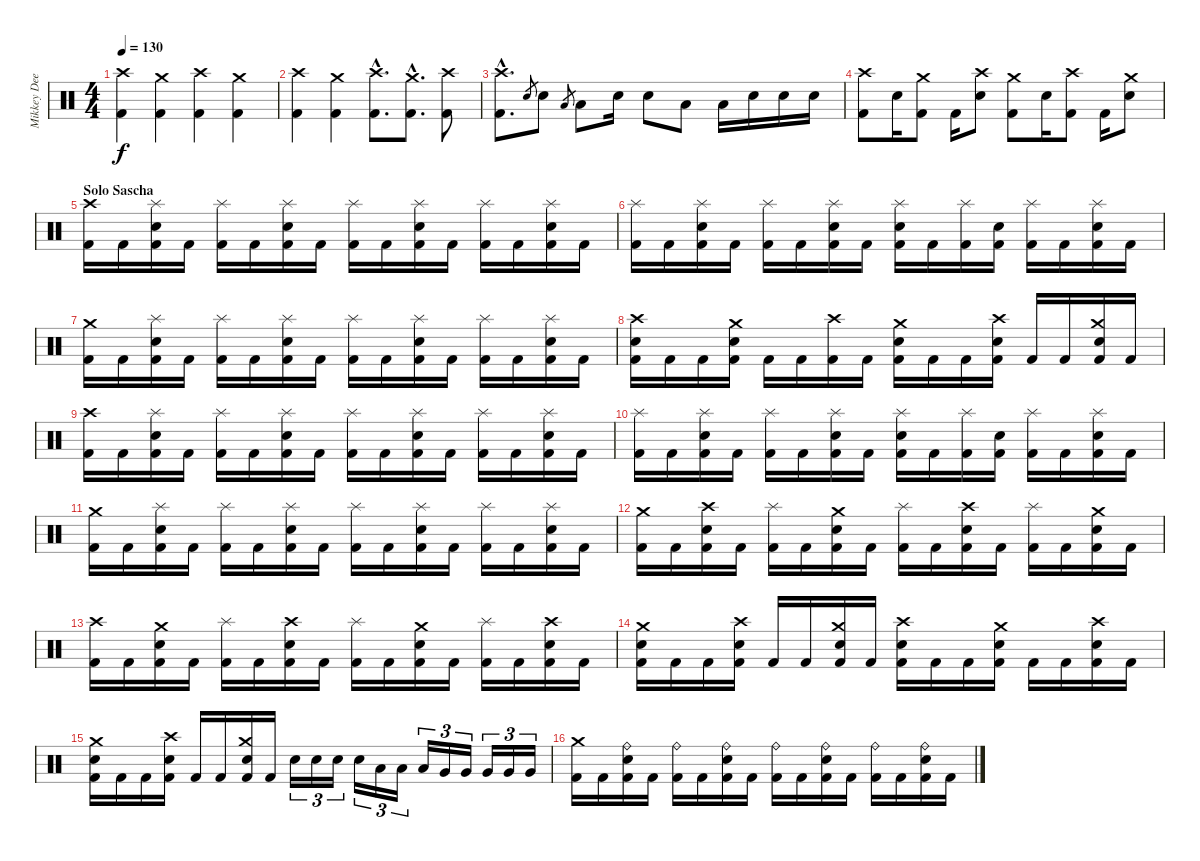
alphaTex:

\track ("Mikkey Dee" "Mikkey Dee") {instrument percussion}
\staff {score}
\articulation defaults
\ts (4 4)
\tempo 130
\clef neutral
\ks c
("Crash high (hit)" "Kick (hit) 2").4{dy f} ("Crash medium (hit)" "Kick (hit) 2").4 ("Crash high (hit)" "Kick (hit) 2").4 ("Crash medium (hit)" "Kick (hit) 2").4 |
("Crash high (hit)" "Kick (hit) 2").4 ("Crash medium (hit)" "Kick (hit) 2").4 ("Crash high (hit)"{hac} "Kick (hit) 2"{hac}).8{d} ("Crash medium (hit)"{hac} "Kick (hit) 2"{hac}).8{d} ("Crash high (hit)" "Kick (hit) 2").8 |
("Crash high (hit)"{hac} "Kick (hit) 2"{hac}).8{d} "Snare (hit) 2".8{gr} "Snare (hit) 2".8 "Low Tom (hit)".8{gr} "Low Tom (hit)".8 "Snare (hit) 2".16 "Snare (hit) 2".8 "Low Tom (hit)".8 "Low Tom (hit)".16 "Snare (hit) 2".16 "Snare (hit) 2".16 "Snare (hit) 2".16 |
("Crash high (hit)" "Kick (hit) 2").8 "Snare (hit) 2".16 ("Crash medium (hit)" "Kick (hit) 2").8 "Kick (hit) 2".16 ("Crash high (hit)" "Snare (hit) 2").8 ("Crash medium (hit)" "Kick (hit) 2").8 "Snare (hit) 2".16 ("Crash high (hit)" "Kick (hit) 2").8 "Kick (hit) 2".16 ("Crash medium (hit)" "Snare (hit) 2").8 |
\section ("" "Solo Sascha")
("Crash high (hit)" "Kick (hit) 2").16 "Kick (hit) 2".16 ("Splash (hit)" "Snare (hit) 2" "Kick (hit) 2").16 "Kick (hit) 2".16 ("Splash (hit)" "Kick (hit) 2").16 "Kick (hit) 2".16 ("Splash (hit)" "Snare (hit) 2" "Kick (hit) 2").16 "Kick (hit) 2".16 ("Splash (hit)" "Kick (hit) 2").16 "Kick (hit) 2".16 ("Splash (hit)" "Snare (hit) 2" "Kick (hit) 2").16 "Kick (hit) 2".16 ("Splash (hit)" "Kick (hit) 2").16 "Kick (hit) 2".16 ("Splash (hit)" "Snare (hit) 2" "Kick (hit) 2").16 "Kick (hit) 2".16 |
("Splash (hit)" "Kick (hit) 2").16 "Kick (hit) 2".16 ("Splash (hit)" "Snare (hit) 2" "Kick (hit) 2").16 "Kick (hit) 2".16 ("Splash (hit)" "Kick (hit) 2").16 "Kick (hit) 2".16 ("Splash (hit)" "Snare (hit) 2" "Kick (hit) 2").16 "Kick (hit) 2".16 ("Splash (hit)" "Snare (hit) 2" "Kick (hit) 2").16 "Kick (hit) 2".16 ("Splash (hit)" "Kick (hit) 2").16 ("Snare (hit) 2" "Kick (hit) 2").16 ("Splash (hit)" "Kick (hit) 2").16 "Kick (hit) 2".16 ("Splash (hit)" "Snare (hit) 2" "Kick (hit) 2").16 "Kick (hit) 2".16 |
("Crash medium (hit)" "Kick (hit) 2").16 "Kick (hit) 2".16 ("Splash (hit)" "Snare (hit) 2" "Kick (hit) 2").16 "Kick (hit) 2".16 ("Splash (hit)" "Kick (hit) 2").16 "Kick (hit) 2".16 ("Splash (hit)" "Snare (hit) 2" "Kick (hit) 2").16 "Kick (hit) 2".16 ("Splash (hit)" "Kick (hit) 2").16 "Kick (hit) 2".16 ("Splash (hit)" "Snare (hit) 2" "Kick (hit) 2").16 "Kick (hit) 2".16 ("Splash (hit)" "Kick (hit) 2").16 "Kick (hit) 2".16 ("Splash (hit)" "Snare (hit) 2" "Kick (hit) 2").16 "Kick (hit) 2".16 |
("Crash high (hit)" "Snare (hit) 2" "Kick (hit) 2").16 "Kick (hit) 2".16 "Kick (hit) 2".16 ("Crash medium (hit)" "Snare (hit) 2" "Kick (hit) 2").16 "Kick (hit) 2".16 "Kick (hit) 2".16 ("Crash high (hit)" "Kick (hit) 2").16 "Kick (hit) 2".16 ("Crash medium (hit)" "Snare (hit) 2" "Kick (hit) 2").16 "Kick (hit) 2".16 "Kick (hit) 2".16 ("Crash high (hit)" "Snare (hit) 2" "Kick (hit) 2").16 "Kick (hit) 2".16 "Kick (hit) 2".16 ("Crash medium (hit)" "Snare (hit) 2" "Kick (hit) 2").16 "Kick (hit) 2".16 |
("Crash high (hit)" "Kick (hit) 2").16 "Kick (hit) 2".16 ("Splash (hit)" "Snare (hit) 2" "Kick (hit) 2").16 "Kick (hit) 2".16 ("Splash (hit)" "Kick (hit) 2").16 "Kick (hit) 2".16 ("Splash (hit)" "Snare (hit) 2" "Kick (hit) 2").16 "Kick (hit) 2".16 ("Splash (hit)" "Kick (hit) 2").16 "Kick (hit) 2".16 ("Splash (hit)" "Snare (hit) 2" "Kick (hit) 2").16 "Kick (hit) 2".16 ("Splash (hit)" "Kick (hit) 2").16 "Kick (hit) 2".16 ("Splash (hit)" "Snare (hit) 2" "Kick (hit) 2").16 "Kick (hit) 2".16 |
("Splash (hit)" "Kick (hit) 2").16 "Kick (hit) 2".16 ("Splash (hit)" "Snare (hit) 2" "Kick (hit) 2").16 "Kick (hit) 2".16 ("Splash (hit)" "Kick (hit) 2").16 "Kick (hit) 2".16 ("Splash (hit)" "Snare (hit) 2" "Kick (hit) 2").16 "Kick (hit) 2".16 ("Splash (hit)" "Snare (hit) 2" "Kick (hit) 2").16 "Kick (hit) 2".16 ("Splash (hit)" "Kick (hit) 2").16 ("Snare (hit) 2" "Kick (hit) 2").16 ("Splash (hit)" "Kick (hit) 2").16 "Kick (hit) 2".16 ("Splash (hit)" "Snare (hit) 2" "Kick (hit) 2").16 "Kick (hit) 2".16 |
("Crash medium (hit)" "Kick (hit) 2").16 "Kick (hit) 2".16 ("Splash (hit)" "Snare (hit) 2" "Kick (hit) 2").16 "Kick (hit) 2".16 ("Splash (hit)" "Kick (hit) 2").16 "Kick (hit) 2".16 ("Splash (hit)" "Snare (hit) 2" "Kick (hit) 2").16 "Kick (hit) 2".16 ("Splash (hit)" "Kick (hit) 2").16 "Kick (hit) 2".16 ("Splash (hit)" "Snare (hit) 2" "Kick (hit) 2").16 "Kick (hit) 2".16 ("Splash (hit)" "Kick (hit) 2").16 "Kick (hit) 2".16 ("Splash (hit)" "Snare (hit) 2" "Kick (hit) 2").16 "Kick (hit) 2".16 |
("Crash medium (hit)" "Kick (hit) 2").16 "Kick (hit) 2".16 ("Crash high (hit)" "Snare (hit) 2" "Kick (hit) 2").16 "Kick (hit) 2".16 ("Splash (hit)" "Kick (hit) 2").16 "Kick (hit) 2".16 ("Crash medium (hit)" "Snare (hit) 2" "Kick (hit) 2").16 "Kick (hit) 2".16 ("Splash (hit)" "Kick (hit) 2").16 "Kick (hit) 2".16 ("Crash high (hit)" "Snare (hit) 2" "Kick (hit) 2").16 "Kick (hit) 2".16 ("Splash (hit)" "Kick (hit) 2").16 "Kick (hit) 2".16 ("Crash medium (hit)" "Snare (hit) 2" "Kick (hit) 2").16 "Kick (hit) 2".16 |
("Crash high (hit)" "Kick (hit) 2").16 "Kick (hit) 2".16 ("Crash medium (hit)" "Snare (hit) 2" "Kick (hit) 2").16 "Kick (hit) 2".16 ("Splash (hit)" "Kick (hit) 2").16 "Kick (hit) 2".16 ("Crash high (hit)" "Snare (hit) 2" "Kick (hit) 2").16 "Kick (hit) 2".16 ("Splash (hit)" "Kick (hit) 2").16 "Kick (hit) 2".16 ("Crash medium (hit)" "Snare (hit) 2" "Kick (hit) 2").16 "Kick (hit) 2".16 ("Splash (hit)" "Kick (hit) 2").16 "Kick (hit) 2".16 ("Crash high (hit)" "Snare (hit) 2" "Kick (hit) 2").16 "Kick (hit) 2".16 |
("Crash medium (hit)" "Snare (hit) 2" "Kick (hit) 2").16 "Kick (hit) 2".16 "Kick (hit) 2".16 ("Crash high (hit)" "Snare (hit) 2" "Kick (hit) 2").16 "Kick (hit) 2".16 "Kick (hit) 2".16 ("Crash medium (hit)" "Snare (hit) 2" "Kick (hit) 2").16 "Kick (hit) 2".16 ("Crash high (hit)" "Snare (hit) 2" "Kick (hit) 2").16 "Kick (hit) 2".16 "Kick (hit) 2".16 ("Crash medium (hit)" "Snare (hit) 2" "Kick (hit) 2").16 "Kick (hit) 2".16 "Kick (hit) 2".16 ("Crash high (hit)" "Snare (hit) 2" "Kick (hit) 2").16 "Kick (hit) 2".16 |
("Crash medium (hit)" "Snare (hit) 2" "Kick (hit) 2").16 "Kick (hit) 2".16 "Kick (hit) 2".16 ("Crash high (hit)" "Snare (hit) 2" "Kick (hit) 2").16 "Kick (hit) 2".16 "Kick (hit) 2".16 ("Crash medium (hit)" "Snare (hit) 2" "Kick (hit) 2").16 "Kick (hit) 2".16 "Snare (hit) 2".16{tu (3 2)} "Snare (hit) 2".16{tu (3 2)} "Snare (hit) 2".16{tu (3 2)} "Snare (hit) 2".16{tu (3 2)} "Low Tom (hit)".16{tu (3 2)} "Low Tom (hit)".16{tu (3 2)} "Low Tom (hit)".16{tu (3 2)} "Very Low Tom (hit)".16{tu (3 2)} "Very Low Tom (hit)".16{tu (3 2)} "Very Low Tom (hit)".16{tu (3 2)} "Very Low Tom (hit)".16{tu (3 2)} "Very Low Tom (hit)".16{tu (3 2)} |
("Crash medium (hit)" "Kick (hit) 2").16 "Kick (hit) 2".16 ("Ride (bell)" "Snare (hit) 2" "Kick (hit) 2").16 "Kick (hit) 2".16 ("Ride (bell)" "Kick (hit) 2").16 "Kick (hit) 2".16 ("Ride (bell)" "Snare (hit) 2" "Kick (hit) 2").16 "Kick (hit) 2".16 ("Ride (bell)" "Kick (hit) 2").16 "Kick (hit) 2".16 ("Ride (bell)" "Snare (hit) 2" "Kick (hit) 2").16 "Kick (hit) 2".16 ("Ride (bell)" "Kick (hit) 2").16 "Kick (hit) 2".16 ("Ride (bell)" "Snare (hit) 2" "Kick (hit) 2").16 "Kick (hit) 2".16
